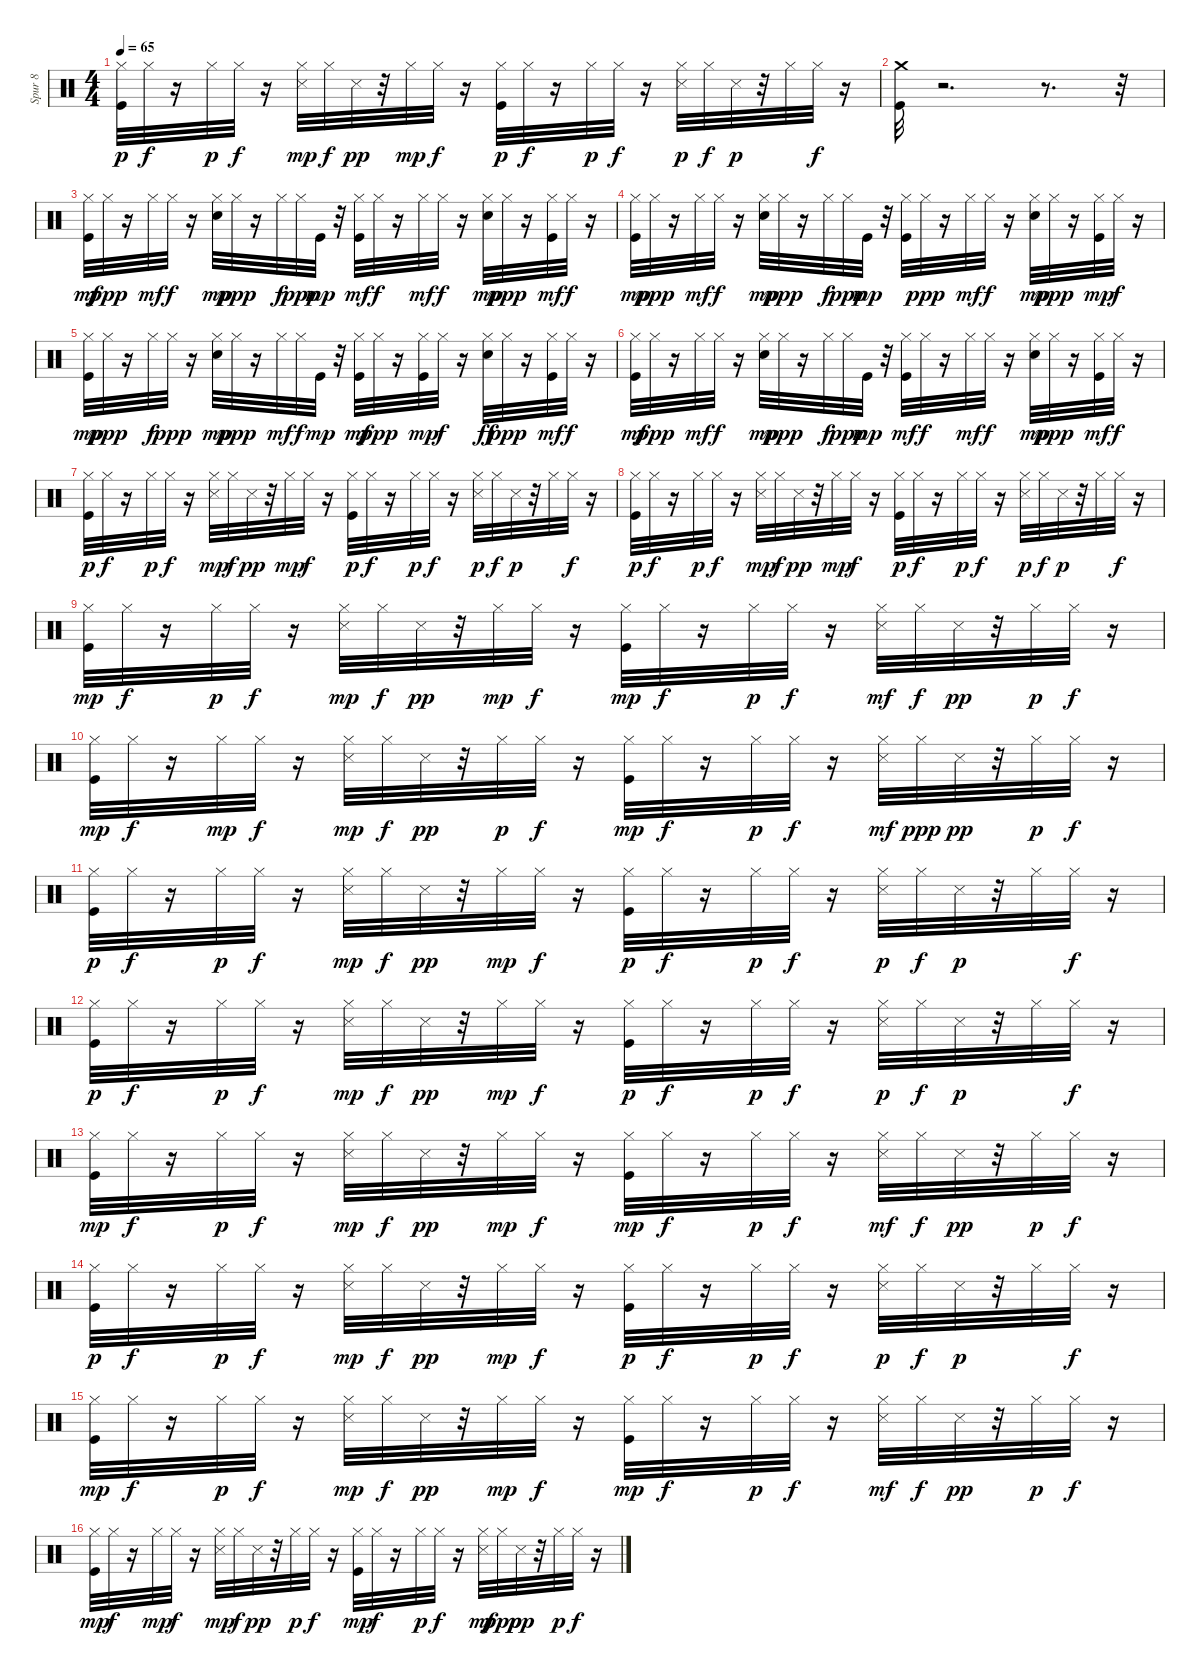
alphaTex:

\track ("Spur 8" "Spur 8") {instrument percussion}
\staff {score}
\articulation defaults
\ts (4 4)
\tempo 65
\clef neutral
\ks c
("Kick (hit)" "Hi-Hat (closed)").32{dy p} "Hi-Hat (closed)".32{dy f} r.16 "Hi-Hat (closed)".32{dy p} "Hi-Hat (closed)".32{dy f} r.16 ("Hi-Hat (closed)" "Snare (side stick) 3").32{dy mp} "Hi-Hat (closed)".32{dy f} "Snare (side stick) 3".32{dy pp} r.32 "Hi-Hat (closed)".32{dy mp} "Hi-Hat (closed)".32{dy f} r.16 ("Kick (hit)" "Hi-Hat (closed)").32{dy p} "Hi-Hat (closed)".32{dy f} r.16 "Hi-Hat (closed)".32{dy p} "Hi-Hat (closed)".32{dy f} r.16 ("Hi-Hat (closed)" "Snare (side stick) 3").32{dy p} "Hi-Hat (closed)".32{dy f} "Snare (side stick) 3".32{dy p} r.32 "Hi-Hat (closed)".32 "Hi-Hat (closed)".32{dy f} r.16 |
("Kick (hit)" "Crash medium (hit)").32 r.2{d} r.8{d} r.32 |
("Kick (hit)" "Hi-Hat (closed)").32{dy mf} "Hi-Hat (closed)".32{dy ppp} r.16 "Hi-Hat (closed)".32{dy mf} "Hi-Hat (closed)".32{dy f} r.16 ("Metronome (bell)" "Hi-Hat (closed)").32{dy mp} "Hi-Hat (closed)".32{dy ppp} r.16 "Hi-Hat (closed)".32{dy f} "Hi-Hat (closed)".32{dy ppp} "Kick (hit)".32{dy mp} r.32 ("Kick (hit)" "Hi-Hat (closed)").32{dy mf} "Hi-Hat (closed)".32{dy f} r.16 "Hi-Hat (closed)".32{dy mf} "Hi-Hat (closed)".32{dy f} r.16 ("Metronome (bell)" "Hi-Hat (closed)").32{dy mp} "Hi-Hat (closed)".32{dy ppp} r.16 ("Kick (hit)" "Hi-Hat (closed)").32{dy mf} "Hi-Hat (closed)".32{dy f} r.16 |
("Kick (hit)" "Hi-Hat (closed)").32{dy mp} "Hi-Hat (closed)".32{dy ppp} r.16 "Hi-Hat (closed)".32{dy mf} "Hi-Hat (closed)".32{dy f} r.16 ("Metronome (bell)" "Hi-Hat (closed)").32{dy mp} "Hi-Hat (closed)".32{dy ppp} r.16 "Hi-Hat (closed)".32{dy f} "Hi-Hat (closed)".32{dy ppp} "Kick (hit)".32{dy mp} r.32 ("Kick (hit)" "Hi-Hat (closed)").32 "Hi-Hat (closed)".32{dy ppp} r.16 "Hi-Hat (closed)".32{dy mf} "Hi-Hat (closed)".32{dy f} r.16 ("Metronome (bell)" "Hi-Hat (closed)").32{dy mp} "Hi-Hat (closed)".32{dy ppp} r.16 ("Kick (hit)" "Hi-Hat (closed)").32{dy mp} "Hi-Hat (closed)".32{dy f} r.16 |
("Kick (hit)" "Hi-Hat (closed)").32{dy mp} "Hi-Hat (closed)".32{dy ppp} r.16 "Hi-Hat (closed)".32{dy f} "Hi-Hat (closed)".32{dy ppp} r.16 ("Metronome (bell)" "Hi-Hat (closed)").32{dy mp} "Hi-Hat (closed)".32{dy ppp} r.16 "Hi-Hat (closed)".32{dy mf} "Hi-Hat (closed)".32{dy f} "Kick (hit)".32{dy mp} r.32 ("Kick (hit)" "Hi-Hat (closed)").32{dy mf} "Hi-Hat (closed)".32{dy ppp} r.16 ("Kick (hit)" "Hi-Hat (closed)").32{dy mp} "Hi-Hat (closed)".32{dy f} r.16 ("Metronome (bell)" "Hi-Hat (closed)").32{dy ff} "Hi-Hat (closed)".32{dy ppp} r.16 ("Kick (hit)" "Hi-Hat (closed)").32{dy mf} "Hi-Hat (closed)".32{dy f} r.16 |
("Kick (hit)" "Hi-Hat (closed)").32{dy mf} "Hi-Hat (closed)".32{dy ppp} r.16 "Hi-Hat (closed)".32{dy mf} "Hi-Hat (closed)".32{dy f} r.16 ("Metronome (bell)" "Hi-Hat (closed)").32{dy mp} "Hi-Hat (closed)".32{dy ppp} r.16 "Hi-Hat (closed)".32{dy f} "Hi-Hat (closed)".32{dy ppp} "Kick (hit)".32{dy mp} r.32 ("Kick (hit)" "Hi-Hat (closed)").32{dy mf} "Hi-Hat (closed)".32{dy f} r.16 "Hi-Hat (closed)".32{dy mf} "Hi-Hat (closed)".32{dy f} r.16 ("Metronome (bell)" "Hi-Hat (closed)").32{dy mp} "Hi-Hat (closed)".32{dy ppp} r.16 ("Kick (hit)" "Hi-Hat (closed)").32{dy mf} "Hi-Hat (closed)".32{dy f} r.16 |
("Kick (hit)" "Hi-Hat (closed)").32{dy p} "Hi-Hat (closed)".32{dy f} r.16 "Hi-Hat (closed)".32{dy p} "Hi-Hat (closed)".32{dy f} r.16 ("Hi-Hat (closed)" "Snare (side stick) 3").32{dy mp} "Hi-Hat (closed)".32{dy f} "Snare (side stick) 3".32{dy pp} r.32 "Hi-Hat (closed)".32{dy mp} "Hi-Hat (closed)".32{dy f} r.16 ("Kick (hit)" "Hi-Hat (closed)").32{dy p} "Hi-Hat (closed)".32{dy f} r.16 "Hi-Hat (closed)".32{dy p} "Hi-Hat (closed)".32{dy f} r.16 ("Hi-Hat (closed)" "Snare (side stick) 3").32{dy p} "Hi-Hat (closed)".32{dy f} "Snare (side stick) 3".32{dy p} r.32 "Hi-Hat (closed)".32 "Hi-Hat (closed)".32{dy f} r.16 |
("Kick (hit)" "Hi-Hat (closed)").32{dy p} "Hi-Hat (closed)".32{dy f} r.16 "Hi-Hat (closed)".32{dy p} "Hi-Hat (closed)".32{dy f} r.16 ("Hi-Hat (closed)" "Snare (side stick) 3").32{dy mp} "Hi-Hat (closed)".32{dy f} "Snare (side stick) 3".32{dy pp} r.32 "Hi-Hat (closed)".32{dy mp} "Hi-Hat (closed)".32{dy f} r.16 ("Kick (hit)" "Hi-Hat (closed)").32{dy p} "Hi-Hat (closed)".32{dy f} r.16 "Hi-Hat (closed)".32{dy p} "Hi-Hat (closed)".32{dy f} r.16 ("Hi-Hat (closed)" "Snare (side stick) 3").32{dy p} "Hi-Hat (closed)".32{dy f} "Snare (side stick) 3".32{dy p} r.32 "Hi-Hat (closed)".32 "Hi-Hat (closed)".32{dy f} r.16 |
("Kick (hit)" "Hi-Hat (closed)").32{dy mp} "Hi-Hat (closed)".32{dy f} r.16 "Hi-Hat (closed)".32{dy p} "Hi-Hat (closed)".32{dy f} r.16 ("Hi-Hat (closed)" "Snare (side stick) 3").32{dy mp} "Hi-Hat (closed)".32{dy f} "Snare (side stick) 3".32{dy pp} r.32 "Hi-Hat (closed)".32{dy mp} "Hi-Hat (closed)".32{dy f} r.16 ("Kick (hit)" "Hi-Hat (closed)").32{dy mp} "Hi-Hat (closed)".32{dy f} r.16 "Hi-Hat (closed)".32{dy p} "Hi-Hat (closed)".32{dy f} r.16 ("Hi-Hat (closed)" "Snare (side stick) 3").32{dy mf} "Hi-Hat (closed)".32{dy f} "Snare (side stick) 3".32{dy pp} r.32 "Hi-Hat (closed)".32{dy p} "Hi-Hat (closed)".32{dy f} r.16 |
("Kick (hit)" "Hi-Hat (closed)").32{dy mp} "Hi-Hat (closed)".32{dy f} r.16 "Hi-Hat (closed)".32{dy mp} "Hi-Hat (closed)".32{dy f} r.16 ("Hi-Hat (closed)" "Snare (side stick) 3").32{dy mp} "Hi-Hat (closed)".32{dy f} "Snare (side stick) 3".32{dy pp} r.32 "Hi-Hat (closed)".32{dy p} "Hi-Hat (closed)".32{dy f} r.16 ("Kick (hit)" "Hi-Hat (closed)").32{dy mp} "Hi-Hat (closed)".32{dy f} r.16 "Hi-Hat (closed)".32{dy p} "Hi-Hat (closed)".32{dy f} r.16 ("Hi-Hat (closed)" "Snare (side stick) 3").32{dy mf} "Hi-Hat (closed)".32{dy ppp} "Snare (side stick) 3".32{dy pp} r.32 "Hi-Hat (closed)".32{dy p} "Hi-Hat (closed)".32{dy f} r.16 |
("Kick (hit)" "Hi-Hat (closed)").32{dy p} "Hi-Hat (closed)".32{dy f} r.16 "Hi-Hat (closed)".32{dy p} "Hi-Hat (closed)".32{dy f} r.16 ("Hi-Hat (closed)" "Snare (side stick) 3").32{dy mp} "Hi-Hat (closed)".32{dy f} "Snare (side stick) 3".32{dy pp} r.32 "Hi-Hat (closed)".32{dy mp} "Hi-Hat (closed)".32{dy f} r.16 ("Kick (hit)" "Hi-Hat (closed)").32{dy p} "Hi-Hat (closed)".32{dy f} r.16 "Hi-Hat (closed)".32{dy p} "Hi-Hat (closed)".32{dy f} r.16 ("Hi-Hat (closed)" "Snare (side stick) 3").32{dy p} "Hi-Hat (closed)".32{dy f} "Snare (side stick) 3".32{dy p} r.32 "Hi-Hat (closed)".32 "Hi-Hat (closed)".32{dy f} r.16 |
("Kick (hit)" "Hi-Hat (closed)").32{dy p} "Hi-Hat (closed)".32{dy f} r.16 "Hi-Hat (closed)".32{dy p} "Hi-Hat (closed)".32{dy f} r.16 ("Hi-Hat (closed)" "Snare (side stick) 3").32{dy mp} "Hi-Hat (closed)".32{dy f} "Snare (side stick) 3".32{dy pp} r.32 "Hi-Hat (closed)".32{dy mp} "Hi-Hat (closed)".32{dy f} r.16 ("Kick (hit)" "Hi-Hat (closed)").32{dy p} "Hi-Hat (closed)".32{dy f} r.16 "Hi-Hat (closed)".32{dy p} "Hi-Hat (closed)".32{dy f} r.16 ("Hi-Hat (closed)" "Snare (side stick) 3").32{dy p} "Hi-Hat (closed)".32{dy f} "Snare (side stick) 3".32{dy p} r.32 "Hi-Hat (closed)".32 "Hi-Hat (closed)".32{dy f} r.16 |
("Kick (hit)" "Hi-Hat (closed)").32{dy mp} "Hi-Hat (closed)".32{dy f} r.16 "Hi-Hat (closed)".32{dy p} "Hi-Hat (closed)".32{dy f} r.16 ("Hi-Hat (closed)" "Snare (side stick) 3").32{dy mp} "Hi-Hat (closed)".32{dy f} "Snare (side stick) 3".32{dy pp} r.32 "Hi-Hat (closed)".32{dy mp} "Hi-Hat (closed)".32{dy f} r.16 ("Kick (hit)" "Hi-Hat (closed)").32{dy mp} "Hi-Hat (closed)".32{dy f} r.16 "Hi-Hat (closed)".32{dy p} "Hi-Hat (closed)".32{dy f} r.16 ("Hi-Hat (closed)" "Snare (side stick) 3").32{dy mf} "Hi-Hat (closed)".32{dy f} "Snare (side stick) 3".32{dy pp} r.32 "Hi-Hat (closed)".32{dy p} "Hi-Hat (closed)".32{dy f} r.16 |
("Kick (hit)" "Hi-Hat (closed)").32{dy p} "Hi-Hat (closed)".32{dy f} r.16 "Hi-Hat (closed)".32{dy p} "Hi-Hat (closed)".32{dy f} r.16 ("Hi-Hat (closed)" "Snare (side stick) 3").32{dy mp} "Hi-Hat (closed)".32{dy f} "Snare (side stick) 3".32{dy pp} r.32 "Hi-Hat (closed)".32{dy mp} "Hi-Hat (closed)".32{dy f} r.16 ("Kick (hit)" "Hi-Hat (closed)").32{dy p} "Hi-Hat (closed)".32{dy f} r.16 "Hi-Hat (closed)".32{dy p} "Hi-Hat (closed)".32{dy f} r.16 ("Hi-Hat (closed)" "Snare (side stick) 3").32{dy p} "Hi-Hat (closed)".32{dy f} "Snare (side stick) 3".32{dy p} r.32 "Hi-Hat (closed)".32 "Hi-Hat (closed)".32{dy f} r.16 |
("Kick (hit)" "Hi-Hat (closed)").32{dy mp} "Hi-Hat (closed)".32{dy f} r.16 "Hi-Hat (closed)".32{dy p} "Hi-Hat (closed)".32{dy f} r.16 ("Hi-Hat (closed)" "Snare (side stick) 3").32{dy mp} "Hi-Hat (closed)".32{dy f} "Snare (side stick) 3".32{dy pp} r.32 "Hi-Hat (closed)".32{dy mp} "Hi-Hat (closed)".32{dy f} r.16 ("Kick (hit)" "Hi-Hat (closed)").32{dy mp} "Hi-Hat (closed)".32{dy f} r.16 "Hi-Hat (closed)".32{dy p} "Hi-Hat (closed)".32{dy f} r.16 ("Hi-Hat (closed)" "Snare (side stick) 3").32{dy mf} "Hi-Hat (closed)".32{dy f} "Snare (side stick) 3".32{dy pp} r.32 "Hi-Hat (closed)".32{dy p} "Hi-Hat (closed)".32{dy f} r.16 |
("Kick (hit)" "Hi-Hat (closed)").32{dy mp} "Hi-Hat (closed)".32{dy f} r.16 "Hi-Hat (closed)".32{dy mp} "Hi-Hat (closed)".32{dy f} r.16 ("Hi-Hat (closed)" "Snare (side stick) 3").32{dy mp} "Hi-Hat (closed)".32{dy f} "Snare (side stick) 3".32{dy pp} r.32 "Hi-Hat (closed)".32{dy p} "Hi-Hat (closed)".32{dy f} r.16 ("Kick (hit)" "Hi-Hat (closed)").32{dy mp} "Hi-Hat (closed)".32{dy f} r.16 "Hi-Hat (closed)".32{dy p} "Hi-Hat (closed)".32{dy f} r.16 ("Hi-Hat (closed)" "Snare (side stick) 3").32{dy mf} "Hi-Hat (closed)".32{dy ppp} "Snare (side stick) 3".32{dy pp} r.32 "Hi-Hat (closed)".32{dy p} "Hi-Hat (closed)".32{dy f} r.16
